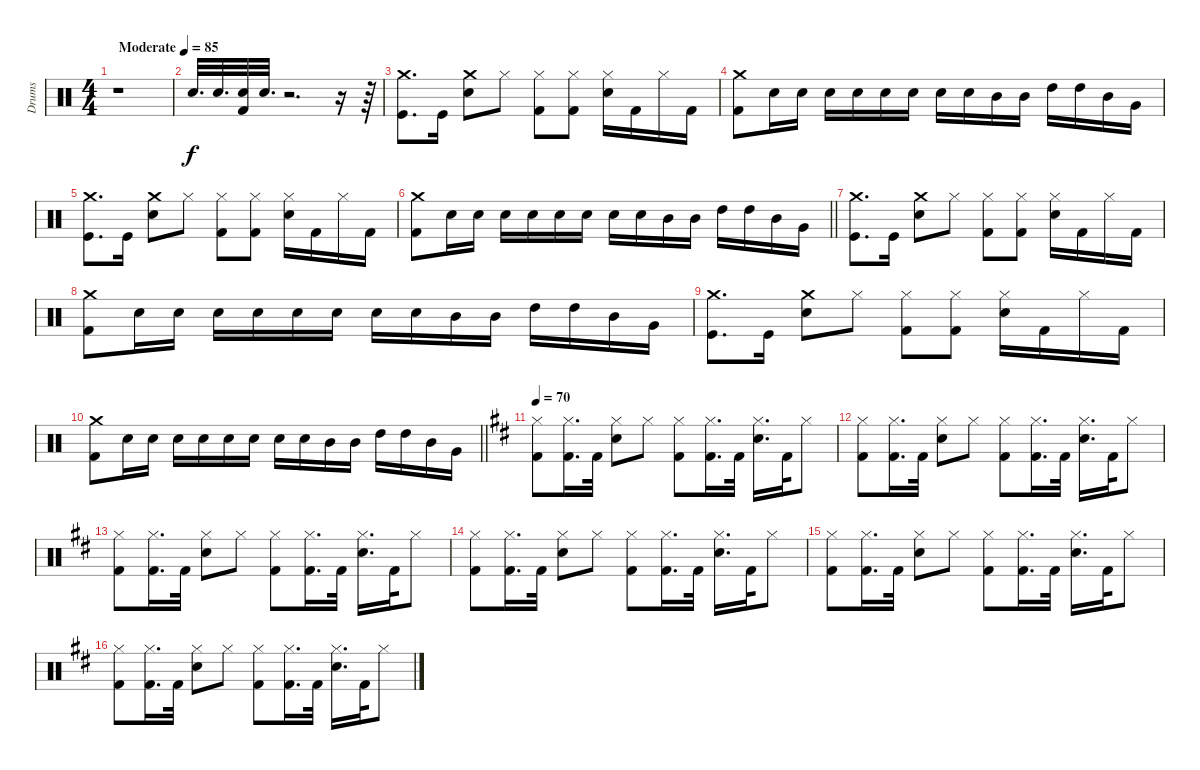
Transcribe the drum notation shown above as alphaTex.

\track ("Drums" "Drums") {instrument percussion}
\staff {score}
\articulation defaults
\ts (4 4)
\tempo (85 "Moderate")
\clef neutral
\ks c
r.1{dy f} |
"Snare (hit) 2".32{d volume 5} "Snare (hit) 2".32{d} ("Snare (hit) 2" "Kick (hit) 2").32 "Snare (hit) 2".32{d} r.2{d} r.16 r.64 |
("Crash medium (hit)" "Kick (hit)").8{d volume 11} "Kick (hit)".16 ("Crash medium (hit)" "Snare (hit) 2").8 "Hi-Hat (closed)".8 ("Hi-Hat (closed)" "Kick (hit) 2").8 ("Hi-Hat (closed)" "Kick (hit) 2").8 ("Hi-Hat (closed)" "Snare (hit) 2").16 "Kick (hit) 2".16 "Hi-Hat (closed)".16 "Kick (hit) 2".16 |
("Crash medium (hit)" "Kick (hit) 2").8 "Snare (hit) 2".16 "Snare (hit) 2".16 "Snare (hit) 2".16 "Snare (hit) 2".16 "Snare (hit) 2".16 "Snare (hit) 2".16 "Snare (hit) 2".16 "Snare (hit) 2".16 "Mid Tom (hit)".16 "Mid Tom (hit)".16 "High Tom (hit)".16 "High Tom (hit)".16 "Mid Tom (hit)".16 "Very Low Tom (hit)".16 |
("Crash medium (hit)" "Kick (hit)").8{d} "Kick (hit)".16 ("Crash medium (hit)" "Snare (hit) 2").8 "Hi-Hat (closed)".8 ("Hi-Hat (closed)" "Kick (hit) 2").8 ("Hi-Hat (closed)" "Kick (hit) 2").8 ("Hi-Hat (closed)" "Snare (hit) 2").16 "Kick (hit) 2".16 "Hi-Hat (closed)".16 "Kick (hit) 2".16 |
\barLineRight lightlight
("Crash medium (hit)" "Kick (hit) 2").8 "Snare (hit) 2".16 "Snare (hit) 2".16 "Snare (hit) 2".16 "Snare (hit) 2".16 "Snare (hit) 2".16 "Snare (hit) 2".16 "Snare (hit) 2".16 "Snare (hit) 2".16 "Mid Tom (hit)".16 "Mid Tom (hit)".16 "High Tom (hit)".16 "High Tom (hit)".16 "Mid Tom (hit)".16 "Very Low Tom (hit)".16 |
("Crash medium (hit)" "Kick (hit)").8{d} "Kick (hit)".16 ("Crash medium (hit)" "Snare (hit) 2").8 "Hi-Hat (closed)".8 ("Hi-Hat (closed)" "Kick (hit) 2").8 ("Hi-Hat (closed)" "Kick (hit) 2").8 ("Hi-Hat (closed)" "Snare (hit) 2").16 "Kick (hit) 2".16 "Hi-Hat (closed)".16 "Kick (hit) 2".16 |
("Crash medium (hit)" "Kick (hit) 2").8 "Snare (hit) 2".16 "Snare (hit) 2".16 "Snare (hit) 2".16 "Snare (hit) 2".16 "Snare (hit) 2".16 "Snare (hit) 2".16 "Snare (hit) 2".16 "Snare (hit) 2".16 "Mid Tom (hit)".16 "Mid Tom (hit)".16 "High Tom (hit)".16 "High Tom (hit)".16 "Mid Tom (hit)".16 "Very Low Tom (hit)".16 |
("Crash medium (hit)" "Kick (hit)").8{d} "Kick (hit)".16 ("Crash medium (hit)" "Snare (hit) 2").8 "Hi-Hat (closed)".8 ("Hi-Hat (closed)" "Kick (hit) 2").8 ("Hi-Hat (closed)" "Kick (hit) 2").8 ("Hi-Hat (closed)" "Snare (hit) 2").16 "Kick (hit) 2".16 "Hi-Hat (closed)".16 "Kick (hit) 2".16 |
\barLineRight lightlight
("Crash medium (hit)" "Kick (hit) 2").8 "Snare (hit) 2".16 "Snare (hit) 2".16 "Snare (hit) 2".16 "Snare (hit) 2".16 "Snare (hit) 2".16 "Snare (hit) 2".16 "Snare (hit) 2".16 "Snare (hit) 2".16 "Mid Tom (hit)".16 "Mid Tom (hit)".16 "High Tom (hit)".16 "High Tom (hit)".16 "Mid Tom (hit)".16 "Very Low Tom (hit)".16 |
\tempo 70
\ks d
("Hi-Hat (closed)" "Kick (hit) 2").8 ("Hi-Hat (closed)" "Kick (hit) 2").16{d} "Kick (hit) 2".32 ("Hi-Hat (closed)" "Snare (hit) 2").8 "Hi-Hat (closed)".8 ("Hi-Hat (closed)" "Kick (hit) 2").8 ("Hi-Hat (closed)" "Kick (hit) 2").16{d} "Kick (hit) 2".32 ("Hi-Hat (closed)" "Snare (hit) 2").16{d} "Kick (hit) 2".32 "Hi-Hat (closed)".8 |
("Hi-Hat (closed)" "Kick (hit) 2").8 ("Hi-Hat (closed)" "Kick (hit) 2").16{d} "Kick (hit) 2".32 ("Hi-Hat (closed)" "Snare (hit) 2").8 "Hi-Hat (closed)".8 ("Hi-Hat (closed)" "Kick (hit) 2").8 ("Hi-Hat (closed)" "Kick (hit) 2").16{d} "Kick (hit) 2".32 ("Hi-Hat (closed)" "Snare (hit) 2").16{d} "Kick (hit) 2".32 "Hi-Hat (closed)".8 |
("Hi-Hat (closed)" "Kick (hit) 2").8 ("Hi-Hat (closed)" "Kick (hit) 2").16{d} "Kick (hit) 2".32 ("Hi-Hat (closed)" "Snare (hit) 2").8 "Hi-Hat (closed)".8 ("Hi-Hat (closed)" "Kick (hit) 2").8 ("Hi-Hat (closed)" "Kick (hit) 2").16{d} "Kick (hit) 2".32 ("Hi-Hat (closed)" "Snare (hit) 2").16{d} "Kick (hit) 2".32 "Hi-Hat (closed)".8 |
("Hi-Hat (closed)" "Kick (hit) 2").8 ("Hi-Hat (closed)" "Kick (hit) 2").16{d} "Kick (hit) 2".32 ("Hi-Hat (closed)" "Snare (hit) 2").8 "Hi-Hat (closed)".8 ("Hi-Hat (closed)" "Kick (hit) 2").8 ("Hi-Hat (closed)" "Kick (hit) 2").16{d} "Kick (hit) 2".32 ("Hi-Hat (closed)" "Snare (hit) 2").16{d} "Kick (hit) 2".32 "Hi-Hat (closed)".8 |
("Hi-Hat (closed)" "Kick (hit) 2").8 ("Hi-Hat (closed)" "Kick (hit) 2").16{d} "Kick (hit) 2".32 ("Hi-Hat (closed)" "Snare (hit) 2").8 "Hi-Hat (closed)".8 ("Hi-Hat (closed)" "Kick (hit) 2").8 ("Hi-Hat (closed)" "Kick (hit) 2").16{d} "Kick (hit) 2".32 ("Hi-Hat (closed)" "Snare (hit) 2").16{d} "Kick (hit) 2".32 "Hi-Hat (closed)".8 |
("Hi-Hat (closed)" "Kick (hit) 2").8 ("Hi-Hat (closed)" "Kick (hit) 2").16{d} "Kick (hit) 2".32 ("Hi-Hat (closed)" "Snare (hit) 2").8 "Hi-Hat (closed)".8 ("Hi-Hat (closed)" "Kick (hit) 2").8 ("Hi-Hat (closed)" "Kick (hit) 2").16{d} "Kick (hit) 2".32 ("Hi-Hat (closed)" "Snare (hit) 2").16{d} "Kick (hit) 2".32 "Hi-Hat (closed)".8
